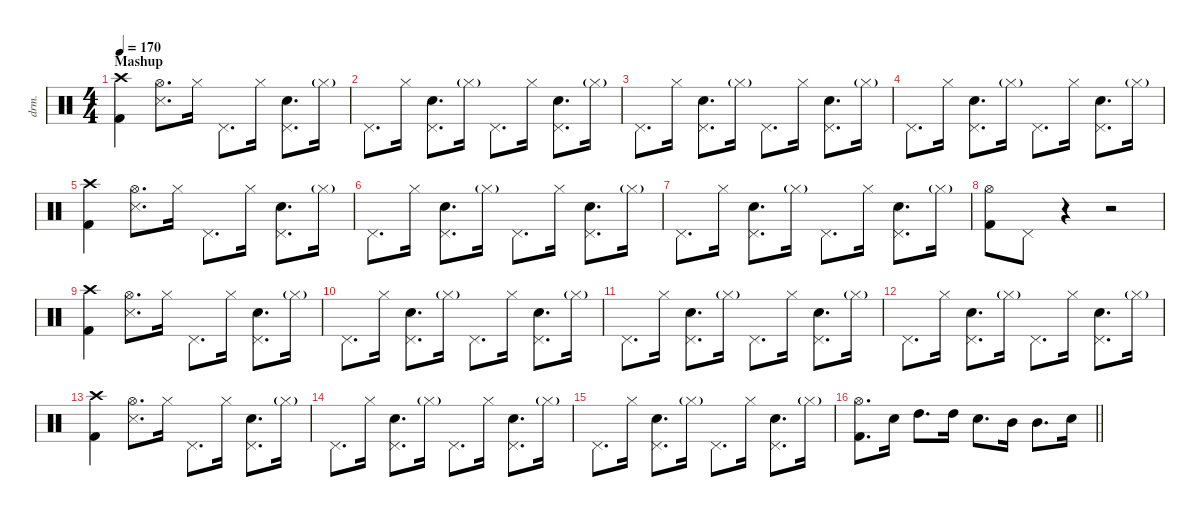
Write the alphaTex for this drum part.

\defaultSystemsLayout 4
\hideDynamics
\bracketExtendMode nobrackets
\otherSystemsTrackNameOrientation horizontal
\track ("Drums" "drm.") {instrument percussion}
\staff {score}
\articulation defaults
\ts (4 4)
\section ("" "Mashup")
\tempo 170
\clef neutral
\ks c
("Crash high (hit)" "Kick (hit) 2").4{dy f beam Down} ("Hi-Hat (open)" "Snare (side stick) 3").8{d beam Down} "Hi-Hat (closed)".16{beam Down} "Pedal Hi-Hat (hit)".8{d beam Down} "Hi-Hat (closed)".16{beam Down} ("Pedal Hi-Hat (hit)" "Snare (hit) 2").8{d beam Down} "Hi-Hat (closed)"{g}.16{dy mf beam Down} |
"Pedal Hi-Hat (hit)".8{d dy f beam Down} "Hi-Hat (closed)".16{beam Down} ("Pedal Hi-Hat (hit)" "Snare (hit) 2").8{d beam Down} "Hi-Hat (closed)"{g}.16{dy mf beam Down} "Pedal Hi-Hat (hit)".8{d dy f beam Down} "Hi-Hat (closed)".16{beam Down} ("Pedal Hi-Hat (hit)" "Snare (hit) 2").8{d beam Down} "Hi-Hat (closed)"{g}.16{dy mf beam Down} |
"Pedal Hi-Hat (hit)".8{d dy f beam Down} "Hi-Hat (closed)".16{beam Down} ("Pedal Hi-Hat (hit)" "Snare (hit) 2").8{d beam Down} "Hi-Hat (closed)"{g}.16{dy mf beam Down} "Pedal Hi-Hat (hit)".8{d dy f beam Down} "Hi-Hat (closed)".16{beam Down} ("Pedal Hi-Hat (hit)" "Snare (hit) 2").8{d beam Down} "Hi-Hat (closed)"{g}.16{dy mf beam Down} |
"Pedal Hi-Hat (hit)".8{d dy f beam Down} "Hi-Hat (closed)".16{beam Down} ("Pedal Hi-Hat (hit)" "Snare (hit) 2").8{d beam Down} "Hi-Hat (closed)"{g}.16{dy mf beam Down} "Pedal Hi-Hat (hit)".8{d dy f beam Down} "Hi-Hat (closed)".16{beam Down} ("Pedal Hi-Hat (hit)" "Snare (hit) 2").8{d beam Down} "Hi-Hat (closed)"{g}.16{dy mf beam Down} |
("Crash high (hit)" "Kick (hit) 2").4{dy f beam Down} ("Hi-Hat (open)" "Snare (side stick) 3").8{d beam Down} "Hi-Hat (closed)".16{beam Down} "Pedal Hi-Hat (hit)".8{d beam Down} "Hi-Hat (closed)".16{beam Down} ("Pedal Hi-Hat (hit)" "Snare (hit) 2").8{d beam Down} "Hi-Hat (closed)"{g}.16{dy mf beam Down} |
"Pedal Hi-Hat (hit)".8{d dy f beam Down} "Hi-Hat (closed)".16{beam Down} ("Pedal Hi-Hat (hit)" "Snare (hit) 2").8{d beam Down} "Hi-Hat (closed)"{g}.16{dy mf beam Down} "Pedal Hi-Hat (hit)".8{d dy f beam Down} "Hi-Hat (closed)".16{beam Down} ("Pedal Hi-Hat (hit)" "Snare (hit) 2").8{d beam Down} "Hi-Hat (closed)"{g}.16{dy mf beam Down} |
"Pedal Hi-Hat (hit)".8{d dy f beam Down} "Hi-Hat (closed)".16{beam Down} ("Pedal Hi-Hat (hit)" "Snare (hit) 2").8{d beam Down} "Hi-Hat (closed)"{g}.16{dy mf beam Down} "Pedal Hi-Hat (hit)".8{d dy f beam Down} "Hi-Hat (closed)".16{beam Down} ("Pedal Hi-Hat (hit)" "Snare (hit) 2").8{d beam Down} "Hi-Hat (closed)"{g}.16{dy mf beam Down} |
("Hi-Hat (open)" "Kick (hit) 2").8{dy f beam Down} "Pedal Hi-Hat (hit)".8{beam Down} r.4{beam Down} r.2{beam Down} |
("Crash high (hit)" "Kick (hit) 2").4{beam Down} ("Hi-Hat (open)" "Snare (side stick) 3").8{d beam Down} "Hi-Hat (closed)".16{beam Down} "Pedal Hi-Hat (hit)".8{d beam Down} "Hi-Hat (closed)".16{beam Down} ("Pedal Hi-Hat (hit)" "Snare (hit) 2").8{d beam Down} "Hi-Hat (closed)"{g}.16{dy mf beam Down} |
"Pedal Hi-Hat (hit)".8{d dy f beam Down} "Hi-Hat (closed)".16{beam Down} ("Pedal Hi-Hat (hit)" "Snare (hit) 2").8{d beam Down} "Hi-Hat (closed)"{g}.16{dy mf beam Down} "Pedal Hi-Hat (hit)".8{d dy f beam Down} "Hi-Hat (closed)".16{beam Down} ("Pedal Hi-Hat (hit)" "Snare (hit) 2").8{d beam Down} "Hi-Hat (closed)"{g}.16{dy mf beam Down} |
"Pedal Hi-Hat (hit)".8{d dy f beam Down} "Hi-Hat (closed)".16{beam Down} ("Pedal Hi-Hat (hit)" "Snare (hit) 2").8{d beam Down} "Hi-Hat (closed)"{g}.16{dy mf beam Down} "Pedal Hi-Hat (hit)".8{d dy f beam Down} "Hi-Hat (closed)".16{beam Down} ("Pedal Hi-Hat (hit)" "Snare (hit) 2").8{d beam Down} "Hi-Hat (closed)"{g}.16{dy mf beam Down} |
"Pedal Hi-Hat (hit)".8{d dy f beam Down} "Hi-Hat (closed)".16{beam Down} ("Pedal Hi-Hat (hit)" "Snare (hit) 2").8{d beam Down} "Hi-Hat (closed)"{g}.16{dy mf beam Down} "Pedal Hi-Hat (hit)".8{d dy f beam Down} "Hi-Hat (closed)".16{beam Down} ("Pedal Hi-Hat (hit)" "Snare (hit) 2").8{d beam Down} "Hi-Hat (closed)"{g}.16{dy mf beam Down} |
("Crash high (hit)" "Kick (hit) 2").4{dy f beam Down} ("Hi-Hat (open)" "Snare (side stick) 3").8{d beam Down} "Hi-Hat (closed)".16{beam Down} "Pedal Hi-Hat (hit)".8{d beam Down} "Hi-Hat (closed)".16{beam Down} ("Pedal Hi-Hat (hit)" "Snare (hit) 2").8{d beam Down} "Hi-Hat (closed)"{g}.16{dy mf beam Down} |
"Pedal Hi-Hat (hit)".8{d dy f beam Down} "Hi-Hat (closed)".16{beam Down} ("Pedal Hi-Hat (hit)" "Snare (hit) 2").8{d beam Down} "Hi-Hat (closed)"{g}.16{dy mf beam Down} "Pedal Hi-Hat (hit)".8{d dy f beam Down} "Hi-Hat (closed)".16{beam Down} ("Pedal Hi-Hat (hit)" "Snare (hit) 2").8{d beam Down} "Hi-Hat (closed)"{g}.16{dy mf beam Down} |
"Pedal Hi-Hat (hit)".8{d dy f beam Down} "Hi-Hat (closed)".16{beam Down} ("Pedal Hi-Hat (hit)" "Snare (hit) 2").8{d beam Down} "Hi-Hat (closed)"{g}.16{dy mf beam Down} "Pedal Hi-Hat (hit)".8{d dy f beam Down} "Hi-Hat (closed)".16{beam Down} ("Pedal Hi-Hat (hit)" "Snare (hit) 2").8{d beam Down} "Hi-Hat (closed)"{g}.16{dy mf beam Down} |
\barLineRight lightlight
("Hi-Hat (open)" "Kick (hit) 2").8{d dy f beam Down} "Snare (hit) 2".16{beam Down} "High Tom (hit)".8{d beam Down} "High Tom (hit)".16{beam Down} "Snare (hit) 2".8{d beam Down} "Mid Tom (hit)".16{beam Down} "Mid Tom (hit)".8{d beam Down} "Snare (hit) 2".16{beam Down}
